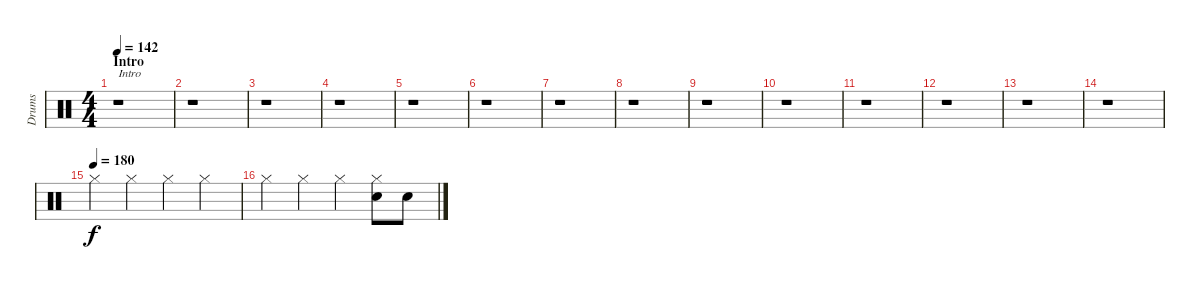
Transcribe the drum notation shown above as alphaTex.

\track ("Drums" "Drums") {instrument percussion}
\staff {score}
\articulation defaults
\ts (4 4)
\section ("" "Intro")
\tempo 142
\clef neutral
\ks c
r.1{txt "Intro" dy f} |
r.1 |
r.1 |
r.1 |
r.1 |
r.1 |
r.1 |
r.1 |
r.1 |
r.1 |
r.1 |
r.1 |
r.1 |
r.1 |
\tempo (180)
"Hi-Hat (closed)".4 "Hi-Hat (closed)".4 "Hi-Hat (closed)".4 "Hi-Hat (closed)".4 |
"Hi-Hat (closed)".4 "Hi-Hat (closed)".4 "Hi-Hat (closed)".4 ("Hi-Hat (closed)" "Electric Snare (hit)").8 "Electric Snare (hit)".8
